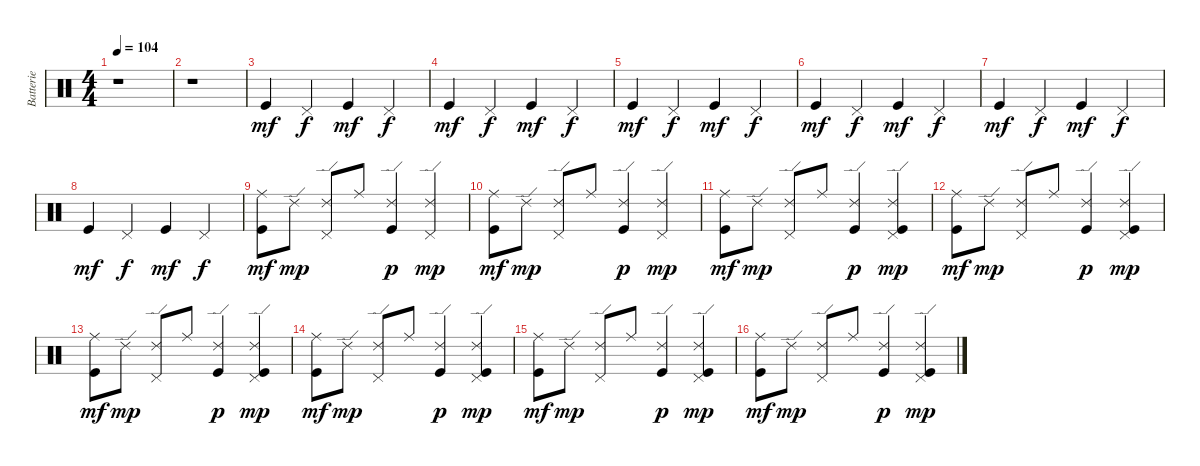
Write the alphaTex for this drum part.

\track ("Batterie" "Batterie") {instrument percussion}
\staff {score}
\articulation defaults
\ts (4 4)
\tempo 104
\clef neutral
\ks c
r.1{dy mf} |
r.1 |
"Kick (hit)".4 "Pedal Hi-Hat (hit)".4{dy f} "Kick (hit)".4{dy mf} "Pedal Hi-Hat (hit)".4{dy f} |
"Kick (hit)".4{dy mf} "Pedal Hi-Hat (hit)".4{dy f} "Kick (hit)".4{dy mf} "Pedal Hi-Hat (hit)".4{dy f} |
"Kick (hit)".4{dy mf} "Pedal Hi-Hat (hit)".4{dy f} "Kick (hit)".4{dy mf} "Pedal Hi-Hat (hit)".4{dy f} |
"Kick (hit)".4{dy mf} "Pedal Hi-Hat (hit)".4{dy f} "Kick (hit)".4{dy mf} "Pedal Hi-Hat (hit)".4{dy f} |
"Kick (hit)".4{dy mf} "Pedal Hi-Hat (hit)".4{dy f} "Kick (hit)".4{dy mf} "Pedal Hi-Hat (hit)".4{dy f} |
"Kick (hit)".4{dy mf} "Pedal Hi-Hat (hit)".4{dy f} "Kick (hit)".4{dy mf} "Pedal Hi-Hat (hit)".4{dy f} |
("Ride (middle)" "Kick (hit)").8{dy mf} "Ride (edge) 2".8{dy mp} ("Pedal Hi-Hat (hit)" "Ride (edge) 2").8 "Ride (middle)".8 ("Kick (hit)" "Ride (edge) 2").4{dy p} ("Pedal Hi-Hat (hit)" "Ride (edge) 2").4{dy mp} |
("Ride (middle)" "Kick (hit)").8{dy mf} "Ride (edge) 2".8{dy mp} ("Pedal Hi-Hat (hit)" "Ride (edge) 2").8 "Ride (middle)".8 ("Kick (hit)" "Ride (edge) 2").4{dy p} ("Pedal Hi-Hat (hit)" "Ride (edge) 2").4{dy mp} |
("Ride (middle)" "Kick (hit)").8{dy mf} "Ride (edge) 2".8{dy mp} ("Pedal Hi-Hat (hit)" "Ride (edge) 2").8 "Ride (middle)".8 ("Kick (hit)" "Ride (edge) 2").4{dy p} ("Pedal Hi-Hat (hit)" "Kick (hit)" "Ride (edge) 2").4{dy mp} |
("Ride (middle)" "Kick (hit)").8{dy mf} "Ride (edge) 2".8{dy mp} ("Pedal Hi-Hat (hit)" "Ride (edge) 2").8 "Ride (middle)".8 ("Kick (hit)" "Ride (edge) 2").4{dy p} ("Pedal Hi-Hat (hit)" "Kick (hit)" "Ride (edge) 2").4{dy mp} |
("Ride (middle)" "Kick (hit)").8{dy mf} "Ride (edge) 2".8{dy mp} ("Pedal Hi-Hat (hit)" "Ride (edge) 2").8 "Ride (middle)".8 ("Kick (hit)" "Ride (edge) 2").4{dy p} ("Pedal Hi-Hat (hit)" "Kick (hit)" "Ride (edge) 2").4{dy mp} |
("Ride (middle)" "Kick (hit)").8{dy mf} "Ride (edge) 2".8{dy mp} ("Pedal Hi-Hat (hit)" "Ride (edge) 2").8 "Ride (middle)".8 ("Kick (hit)" "Ride (edge) 2").4{dy p} ("Pedal Hi-Hat (hit)" "Kick (hit)" "Ride (edge) 2").4{dy mp} |
("Ride (middle)" "Kick (hit)").8{dy mf} "Ride (edge) 2".8{dy mp} ("Pedal Hi-Hat (hit)" "Ride (edge) 2").8 "Ride (middle)".8 ("Kick (hit)" "Ride (edge) 2").4{dy p} ("Pedal Hi-Hat (hit)" "Kick (hit)" "Ride (edge) 2").4{dy mp} |
("Ride (middle)" "Kick (hit)").8{dy mf} "Ride (edge) 2".8{dy mp} ("Pedal Hi-Hat (hit)" "Ride (edge) 2").8 "Ride (middle)".8 ("Kick (hit)" "Ride (edge) 2").4{dy p} ("Pedal Hi-Hat (hit)" "Kick (hit)" "Ride (edge) 2").4{dy mp}
